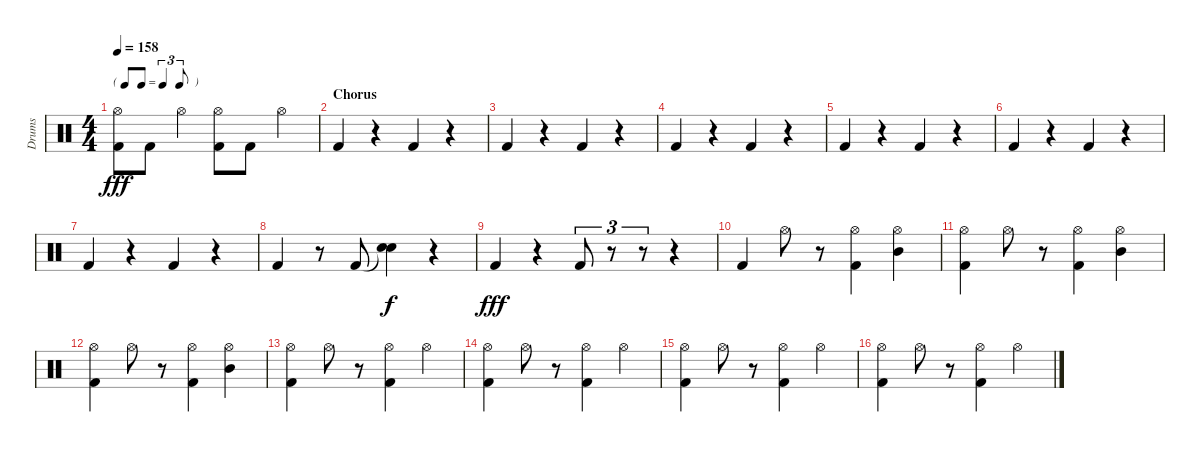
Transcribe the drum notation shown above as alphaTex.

\track ("Drums" "Drums") {instrument percussion}
\staff {score}
\articulation defaults
\ts (4 4)
\tf triplet8th
\tempo 158
\clef neutral
\ks c
("Hi-Hat (open)" "Kick (hit) 2").8{dy fff} "Kick (hit) 2".8 "Hi-Hat (open)".4 ("Hi-Hat (open)" "Kick (hit) 2").8 "Kick (hit) 2".8 "Hi-Hat (open)".4 |
\section ("" "Chorus")
"Kick (hit) 2".4 r.4 "Kick (hit) 2".4 r.4 |
"Kick (hit) 2".4 r.4 "Kick (hit) 2".4 r.4 |
"Kick (hit) 2".4 r.4 "Kick (hit) 2".4 r.4 |
"Kick (hit) 2".4 r.4 "Kick (hit) 2".4 r.4 |
"Kick (hit) 2".4 r.4 "Kick (hit) 2".4 r.4 |
"Kick (hit) 2".4 r.4 "Kick (hit) 2".4 r.4 |
"Kick (hit) 2".4 r.8 "Kick (hit) 2".8 ("Snare (hit)"{t} "Snare (hit)").4{dy f} r.4 |
"Kick (hit) 2".4{dy fff} r.4 "Kick (hit) 2".8{tu (3 2)} r.8{tu (3 2)} r.8{tu (3 2)} r.4 |
"Kick (hit) 2".4 "Hi-Hat (open)".8 r.8 ("Hi-Hat (open)" "Kick (hit) 2").4 ("Hi-Hat (open)" "Mid Tom (hit)").4 |
("Hi-Hat (open)" "Kick (hit) 2").4 "Hi-Hat (open)".8 r.8 ("Hi-Hat (open)" "Kick (hit) 2").4 ("Hi-Hat (open)" "Mid Tom (hit)").4 |
("Hi-Hat (open)" "Kick (hit) 2").4 "Hi-Hat (open)".8 r.8 ("Hi-Hat (open)" "Kick (hit) 2").4 ("Hi-Hat (open)" "Mid Tom (hit)").4 |
("Hi-Hat (open)" "Kick (hit) 2").4 "Hi-Hat (open)".8 r.8 ("Hi-Hat (open)" "Kick (hit) 2").4 "Hi-Hat (open)".4 |
("Hi-Hat (open)" "Kick (hit) 2").4 "Hi-Hat (open)".8 r.8 ("Hi-Hat (open)" "Kick (hit) 2").4 "Hi-Hat (open)".4 |
("Hi-Hat (open)" "Kick (hit) 2").4 "Hi-Hat (open)".8 r.8 ("Hi-Hat (open)" "Kick (hit) 2").4 "Hi-Hat (open)".4 |
("Hi-Hat (open)" "Kick (hit) 2").4 "Hi-Hat (open)".8 r.8 ("Hi-Hat (open)" "Kick (hit) 2").4 "Hi-Hat (open)".4
